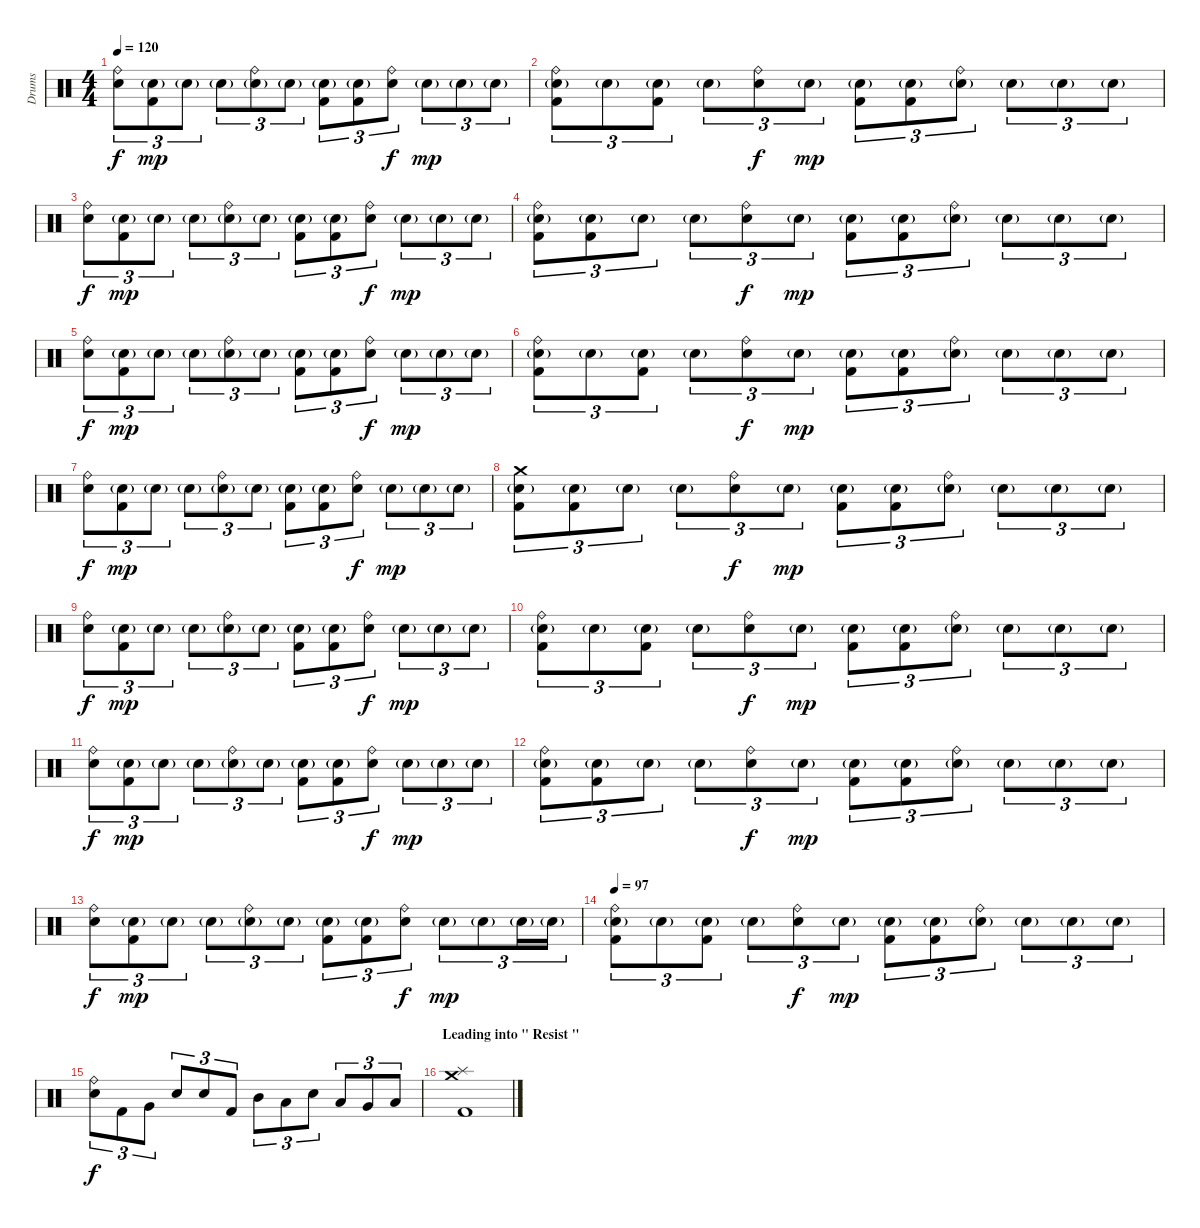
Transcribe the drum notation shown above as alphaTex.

\track ("Drums" "Drums") {instrument percussion}
\staff {score}
\articulation defaults
\ts (4 4)
\tempo 120
\clef neutral
\ks c
("Ride (bell)" "Electric Snare (hit)").8{tu (3 2) dy f} ("Electric Snare (hit)"{g} "Kick (hit) 2").8{tu (3 2) dy mp} "Electric Snare (hit)"{g}.8{tu (3 2)} "Electric Snare (hit)"{g}.8{tu (3 2)} ("Ride (bell)" "Electric Snare (hit)"{g}).8{tu (3 2)} "Electric Snare (hit)"{g}.8{tu (3 2)} ("Electric Snare (hit)"{g} "Kick (hit) 2").8{tu (3 2)} ("Electric Snare (hit)"{g} "Kick (hit) 2").8{tu (3 2)} ("Ride (bell)" "Electric Snare (hit)").8{tu (3 2) dy f} "Electric Snare (hit)"{g}.8{tu (3 2) dy mp} "Electric Snare (hit)"{g}.8{tu (3 2)} "Electric Snare (hit)"{g}.8{tu (3 2)} |
("Ride (bell)" "Electric Snare (hit)"{g} "Kick (hit) 2").8{tu (3 2)} "Electric Snare (hit)"{g}.8{tu (3 2)} ("Electric Snare (hit)"{g} "Kick (hit) 2").8{tu (3 2)} "Electric Snare (hit)"{g}.8{tu (3 2)} ("Ride (bell)" "Electric Snare (hit)").8{tu (3 2) dy f} "Electric Snare (hit)"{g}.8{tu (3 2) dy mp} ("Electric Snare (hit)"{g} "Kick (hit) 2").8{tu (3 2)} ("Electric Snare (hit)"{g} "Kick (hit) 2").8{tu (3 2)} ("Ride (bell)" "Electric Snare (hit)"{g}).8{tu (3 2)} "Electric Snare (hit)"{g}.8{tu (3 2)} "Electric Snare (hit)"{g}.8{tu (3 2)} "Electric Snare (hit)"{g}.8{tu (3 2)} |
("Ride (bell)" "Electric Snare (hit)").8{tu (3 2) dy f} ("Electric Snare (hit)"{g} "Kick (hit) 2").8{tu (3 2) dy mp} "Electric Snare (hit)"{g}.8{tu (3 2)} "Electric Snare (hit)"{g}.8{tu (3 2)} ("Ride (bell)" "Electric Snare (hit)"{g}).8{tu (3 2)} "Electric Snare (hit)"{g}.8{tu (3 2)} ("Electric Snare (hit)"{g} "Kick (hit) 2").8{tu (3 2)} ("Electric Snare (hit)"{g} "Kick (hit) 2").8{tu (3 2)} ("Ride (bell)" "Electric Snare (hit)").8{tu (3 2) dy f} "Electric Snare (hit)"{g}.8{tu (3 2) dy mp} "Electric Snare (hit)"{g}.8{tu (3 2)} "Electric Snare (hit)"{g}.8{tu (3 2)} |
("Ride (bell)" "Electric Snare (hit)"{g} "Kick (hit) 2").8{tu (3 2)} ("Electric Snare (hit)"{g} "Kick (hit) 2").8{tu (3 2)} "Electric Snare (hit)"{g}.8{tu (3 2)} "Electric Snare (hit)"{g}.8{tu (3 2)} ("Ride (bell)" "Electric Snare (hit)").8{tu (3 2) dy f} "Electric Snare (hit)"{g}.8{tu (3 2) dy mp} ("Electric Snare (hit)"{g} "Kick (hit) 2").8{tu (3 2)} ("Electric Snare (hit)"{g} "Kick (hit) 2").8{tu (3 2)} ("Ride (bell)" "Electric Snare (hit)"{g}).8{tu (3 2)} "Electric Snare (hit)"{g}.8{tu (3 2)} "Electric Snare (hit)"{g}.8{tu (3 2)} "Electric Snare (hit)"{g}.8{tu (3 2)} |
("Ride (bell)" "Electric Snare (hit)").8{tu (3 2) dy f} ("Electric Snare (hit)"{g} "Kick (hit) 2").8{tu (3 2) dy mp} "Electric Snare (hit)"{g}.8{tu (3 2)} "Electric Snare (hit)"{g}.8{tu (3 2)} ("Ride (bell)" "Electric Snare (hit)"{g}).8{tu (3 2)} "Electric Snare (hit)"{g}.8{tu (3 2)} ("Electric Snare (hit)"{g} "Kick (hit) 2").8{tu (3 2)} ("Electric Snare (hit)"{g} "Kick (hit) 2").8{tu (3 2)} ("Ride (bell)" "Electric Snare (hit)").8{tu (3 2) dy f} "Electric Snare (hit)"{g}.8{tu (3 2) dy mp} "Electric Snare (hit)"{g}.8{tu (3 2)} "Electric Snare (hit)"{g}.8{tu (3 2)} |
("Ride (bell)" "Electric Snare (hit)"{g} "Kick (hit) 2").8{tu (3 2)} "Electric Snare (hit)"{g}.8{tu (3 2)} ("Electric Snare (hit)"{g} "Kick (hit) 2").8{tu (3 2)} "Electric Snare (hit)"{g}.8{tu (3 2)} ("Ride (bell)" "Electric Snare (hit)").8{tu (3 2) dy f} "Electric Snare (hit)"{g}.8{tu (3 2) dy mp} ("Electric Snare (hit)"{g} "Kick (hit) 2").8{tu (3 2)} ("Electric Snare (hit)"{g} "Kick (hit) 2").8{tu (3 2)} ("Ride (bell)" "Electric Snare (hit)"{g}).8{tu (3 2)} "Electric Snare (hit)"{g}.8{tu (3 2)} "Electric Snare (hit)"{g}.8{tu (3 2)} "Electric Snare (hit)"{g}.8{tu (3 2)} |
("Ride (bell)" "Electric Snare (hit)").8{tu (3 2) dy f} ("Electric Snare (hit)"{g} "Kick (hit) 2").8{tu (3 2) dy mp} "Electric Snare (hit)"{g}.8{tu (3 2)} "Electric Snare (hit)"{g}.8{tu (3 2)} ("Ride (bell)" "Electric Snare (hit)"{g}).8{tu (3 2)} "Electric Snare (hit)"{g}.8{tu (3 2)} ("Electric Snare (hit)"{g} "Kick (hit) 2").8{tu (3 2)} ("Electric Snare (hit)"{g} "Kick (hit) 2").8{tu (3 2)} ("Ride (bell)" "Electric Snare (hit)").8{tu (3 2) dy f} "Electric Snare (hit)"{g}.8{tu (3 2) dy mp} "Electric Snare (hit)"{g}.8{tu (3 2)} "Electric Snare (hit)"{g}.8{tu (3 2)} |
("Crash medium (hit)" "Electric Snare (hit)"{g} "Kick (hit) 2").8{tu (3 2)} ("Electric Snare (hit)"{g} "Kick (hit) 2").8{tu (3 2)} "Electric Snare (hit)"{g}.8{tu (3 2)} "Electric Snare (hit)"{g}.8{tu (3 2)} ("Ride (bell)" "Electric Snare (hit)").8{tu (3 2) dy f} "Electric Snare (hit)"{g}.8{tu (3 2) dy mp} ("Electric Snare (hit)"{g} "Kick (hit) 2").8{tu (3 2)} ("Electric Snare (hit)"{g} "Kick (hit) 2").8{tu (3 2)} ("Ride (bell)" "Electric Snare (hit)"{g}).8{tu (3 2)} "Electric Snare (hit)"{g}.8{tu (3 2)} "Electric Snare (hit)"{g}.8{tu (3 2)} "Electric Snare (hit)"{g}.8{tu (3 2)} |
("Ride (bell)" "Electric Snare (hit)").8{tu (3 2) dy f} ("Electric Snare (hit)"{g} "Kick (hit) 2").8{tu (3 2) dy mp} "Electric Snare (hit)"{g}.8{tu (3 2)} "Electric Snare (hit)"{g}.8{tu (3 2)} ("Ride (bell)" "Electric Snare (hit)"{g}).8{tu (3 2)} "Electric Snare (hit)"{g}.8{tu (3 2)} ("Electric Snare (hit)"{g} "Kick (hit) 2").8{tu (3 2)} ("Electric Snare (hit)"{g} "Kick (hit) 2").8{tu (3 2)} ("Ride (bell)" "Electric Snare (hit)").8{tu (3 2) dy f} "Electric Snare (hit)"{g}.8{tu (3 2) dy mp} "Electric Snare (hit)"{g}.8{tu (3 2)} "Electric Snare (hit)"{g}.8{tu (3 2)} |
("Ride (bell)" "Electric Snare (hit)"{g} "Kick (hit) 2").8{tu (3 2)} "Electric Snare (hit)"{g}.8{tu (3 2)} ("Electric Snare (hit)"{g} "Kick (hit) 2").8{tu (3 2)} "Electric Snare (hit)"{g}.8{tu (3 2)} ("Ride (bell)" "Electric Snare (hit)").8{tu (3 2) dy f} "Electric Snare (hit)"{g}.8{tu (3 2) dy mp} ("Electric Snare (hit)"{g} "Kick (hit) 2").8{tu (3 2)} ("Electric Snare (hit)"{g} "Kick (hit) 2").8{tu (3 2)} ("Ride (bell)" "Electric Snare (hit)"{g}).8{tu (3 2)} "Electric Snare (hit)"{g}.8{tu (3 2)} "Electric Snare (hit)"{g}.8{tu (3 2)} "Electric Snare (hit)"{g}.8{tu (3 2)} |
("Ride (bell)" "Electric Snare (hit)").8{tu (3 2) dy f} ("Electric Snare (hit)"{g} "Kick (hit) 2").8{tu (3 2) dy mp} "Electric Snare (hit)"{g}.8{tu (3 2)} "Electric Snare (hit)"{g}.8{tu (3 2)} ("Ride (bell)" "Electric Snare (hit)"{g}).8{tu (3 2)} "Electric Snare (hit)"{g}.8{tu (3 2)} ("Electric Snare (hit)"{g} "Kick (hit) 2").8{tu (3 2)} ("Electric Snare (hit)"{g} "Kick (hit) 2").8{tu (3 2)} ("Ride (bell)" "Electric Snare (hit)").8{tu (3 2) dy f} "Electric Snare (hit)"{g}.8{tu (3 2) dy mp} "Electric Snare (hit)"{g}.8{tu (3 2)} "Electric Snare (hit)"{g}.8{tu (3 2)} |
("Ride (bell)" "Electric Snare (hit)"{g} "Kick (hit) 2").8{tu (3 2)} ("Electric Snare (hit)"{g} "Kick (hit) 2").8{tu (3 2)} "Electric Snare (hit)"{g}.8{tu (3 2)} "Electric Snare (hit)"{g}.8{tu (3 2)} ("Ride (bell)" "Electric Snare (hit)").8{tu (3 2) dy f} "Electric Snare (hit)"{g}.8{tu (3 2) dy mp} ("Electric Snare (hit)"{g} "Kick (hit) 2").8{tu (3 2)} ("Electric Snare (hit)"{g} "Kick (hit) 2").8{tu (3 2)} ("Ride (bell)" "Electric Snare (hit)"{g}).8{tu (3 2)} "Electric Snare (hit)"{g}.8{tu (3 2)} "Electric Snare (hit)"{g}.8{tu (3 2)} "Electric Snare (hit)"{g}.8{tu (3 2)} |
("Ride (bell)" "Electric Snare (hit)").8{tu (3 2) dy f} ("Electric Snare (hit)"{g} "Kick (hit) 2").8{tu (3 2) dy mp} "Electric Snare (hit)"{g}.8{tu (3 2)} "Electric Snare (hit)"{g}.8{tu (3 2)} ("Ride (bell)" "Electric Snare (hit)"{g}).8{tu (3 2)} "Electric Snare (hit)"{g}.8{tu (3 2)} ("Electric Snare (hit)"{g} "Kick (hit) 2").8{tu (3 2)} ("Electric Snare (hit)"{g} "Kick (hit) 2").8{tu (3 2)} ("Ride (bell)" "Electric Snare (hit)").8{tu (3 2) dy f} "Electric Snare (hit)"{g}.8{tu (3 2) dy mp} "Electric Snare (hit)"{g}.8{tu (3 2)} "Electric Snare (hit)"{g}.16{tu (3 2)} "Electric Snare (hit)"{g}.16{tu (3 2)} |
\tempo 97
("Ride (bell)" "Electric Snare (hit)"{g} "Kick (hit) 2").8{tu (3 2)} "Electric Snare (hit)"{g}.8{tu (3 2)} ("Electric Snare (hit)"{g} "Kick (hit) 2").8{tu (3 2)} "Electric Snare (hit)"{g}.8{tu (3 2)} ("Ride (bell)" "Electric Snare (hit)").8{tu (3 2) dy f} "Electric Snare (hit)"{g}.8{tu (3 2) dy mp} ("Electric Snare (hit)"{g} "Kick (hit) 2").8{tu (3 2)} ("Electric Snare (hit)"{g} "Kick (hit) 2").8{tu (3 2)} ("Ride (bell)" "Electric Snare (hit)"{g}).8{tu (3 2)} "Electric Snare (hit)"{g}.8{tu (3 2)} "Electric Snare (hit)"{g}.8{tu (3 2)} "Electric Snare (hit)"{g}.8{tu (3 2)} |
("Ride (bell)" "Electric Snare (hit)").8{tu (3 2) dy f} "Kick (hit) 2".8{tu (3 2)} "Very Low Tom (hit)".8{tu (3 2)} "Electric Snare (hit)".8{tu (3 2)} "Electric Snare (hit)".8{tu (3 2)} "Kick (hit) 2".8{tu (3 2)} "Mid Tom (hit)".8{tu (3 2)} "Low Tom (hit)".8{tu (3 2)} "Electric Snare (hit)".8{tu (3 2)} "Low Floor Tom (hit)".8{tu (3 2)} "Very Low Tom (hit)".8{tu (3 2)} "Low Floor Tom (hit)".8{tu (3 2)} |
\section ("" "Leading into \" Resist \"")
("Crash medium (hit)" "Splash (hit)" "Kick (hit) 2").1
